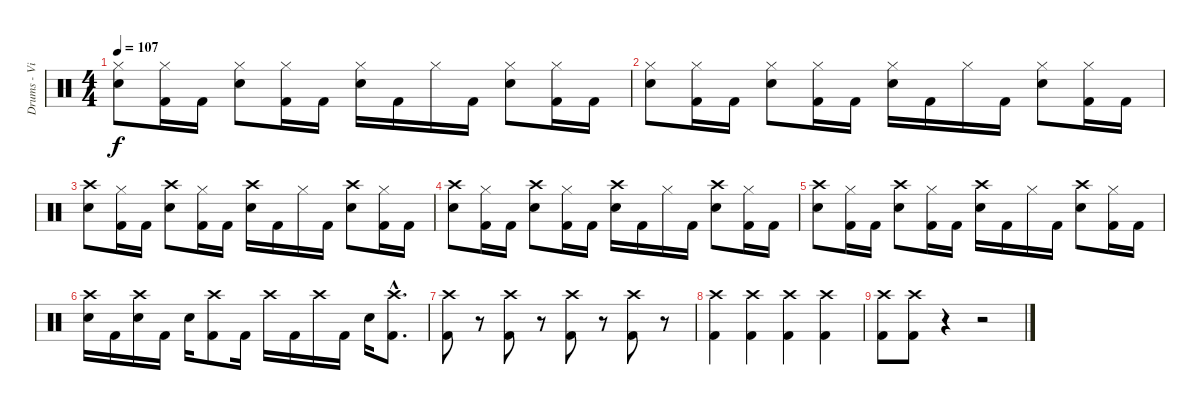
\track ("Drums - Vinnie Paul" "Drums - Vi") {instrument percussion}
\staff {score}
\articulation defaults
\ts (4 4)
\tempo 107
\clef neutral
\ks c
("Hi-Hat (closed)" "Electric Snare (hit)").8{dy f} ("Hi-Hat (closed)" "Kick (hit) 2").16 "Kick (hit) 2".16 ("Hi-Hat (closed)" "Electric Snare (hit)").8 ("Hi-Hat (closed)" "Kick (hit) 2").16 "Kick (hit) 2".16 ("Hi-Hat (closed)" "Electric Snare (hit)").16 "Kick (hit) 2".16 "Hi-Hat (closed)".16 "Kick (hit) 2".16 ("Hi-Hat (closed)" "Electric Snare (hit)").8 ("Hi-Hat (closed)" "Kick (hit) 2").16 "Kick (hit) 2".16 |
("Hi-Hat (closed)" "Electric Snare (hit)").8 ("Hi-Hat (closed)" "Kick (hit) 2").16 "Kick (hit) 2".16 ("Hi-Hat (closed)" "Electric Snare (hit)").8 ("Hi-Hat (closed)" "Kick (hit) 2").16 "Kick (hit) 2".16 ("Hi-Hat (closed)" "Electric Snare (hit)").16 "Kick (hit) 2".16 "Hi-Hat (closed)".16 "Kick (hit) 2".16 ("Hi-Hat (closed)" "Electric Snare (hit)").8 ("Hi-Hat (closed)" "Kick (hit) 2").16 "Kick (hit) 2".16 |
("Crash high (hit)" "Electric Snare (hit)").8 ("Hi-Hat (closed)" "Kick (hit) 2").16 "Kick (hit) 2".16 ("Crash high (hit)" "Electric Snare (hit)").8 ("Hi-Hat (closed)" "Kick (hit) 2").16 "Kick (hit) 2".16 ("Crash high (hit)" "Electric Snare (hit)").16 "Kick (hit) 2".16 "Hi-Hat (closed)".16 "Kick (hit) 2".16 ("Crash high (hit)" "Electric Snare (hit)").8 ("Hi-Hat (closed)" "Kick (hit) 2").16 "Kick (hit) 2".16 |
("Crash high (hit)" "Electric Snare (hit)").8 ("Hi-Hat (closed)" "Kick (hit) 2").16 "Kick (hit) 2".16 ("Crash high (hit)" "Electric Snare (hit)").8 ("Hi-Hat (closed)" "Kick (hit) 2").16 "Kick (hit) 2".16 ("Crash high (hit)" "Electric Snare (hit)").16 "Kick (hit) 2".16 "Hi-Hat (closed)".16 "Kick (hit) 2".16 ("Crash high (hit)" "Electric Snare (hit)").8 ("Hi-Hat (closed)" "Kick (hit) 2").16 "Kick (hit) 2".16 |
("Crash high (hit)" "Electric Snare (hit)").8 ("Hi-Hat (closed)" "Kick (hit) 2").16 "Kick (hit) 2".16 ("Crash high (hit)" "Electric Snare (hit)").8 ("Hi-Hat (closed)" "Kick (hit) 2").16 "Kick (hit) 2".16 ("Crash high (hit)" "Electric Snare (hit)").16 "Kick (hit) 2".16 "Hi-Hat (closed)".16 "Kick (hit) 2".16 ("Crash high (hit)" "Electric Snare (hit)").8 ("Hi-Hat (closed)" "Kick (hit) 2").16 "Kick (hit) 2".16 |
("Crash high (hit)" "Electric Snare (hit)").16 "Kick (hit) 2".16 ("Crash high (hit)" "Electric Snare (hit)").16 "Kick (hit) 2".16 "Electric Snare (hit)".16 ("Crash high (hit)" "Kick (hit) 2").8 "Kick (hit) 2".16 "Crash high (hit)".16 "Kick (hit) 2".16 "Crash high (hit)".16 "Kick (hit) 2".16 "Electric Snare (hit)".16 ("Crash high (hit)"{hac} "Kick (hit) 2"{hac}).8{d} |
("Crash high (hit)" "Kick (hit) 2").8 r.8 ("Crash high (hit)" "Kick (hit) 2").8 r.8 ("Crash high (hit)" "Kick (hit) 2").8 r.8 ("Crash high (hit)" "Kick (hit) 2").8 r.8 |
("Crash high (hit)" "Kick (hit) 2").4 ("Crash high (hit)" "Kick (hit) 2").4 ("Crash high (hit)" "Kick (hit) 2").4 ("Crash high (hit)" "Kick (hit) 2").4 |
("Crash high (hit)" "Kick (hit) 2").8 ("Crash high (hit)" "Kick (hit) 2").8 r.4 r.2
